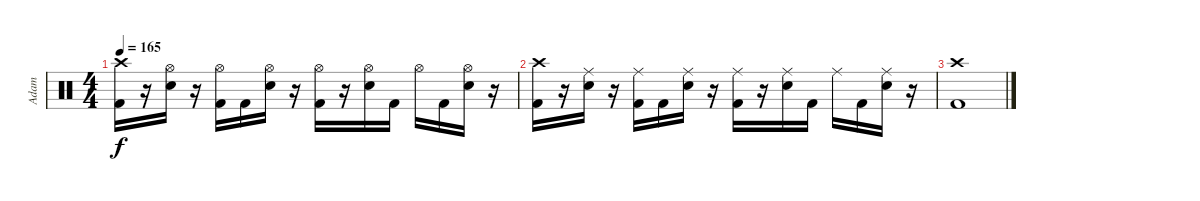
\track ("Adam" "Adam") {instrument percussion}
\staff {score}
\articulation defaults
\ts (4 4)
\tempo 165
\clef neutral
\ks c
("Crash high (hit)" "Kick (hit) 2").16{dy f} r.16 ("Hi-Hat (open)" "Electric Snare (hit)").16 r.16 ("Hi-Hat (open)" "Kick (hit) 2").16 "Kick (hit) 2".16 ("Hi-Hat (open)" "Electric Snare (hit)").16 r.16 ("Hi-Hat (open)" "Kick (hit) 2").16 r.16 ("Hi-Hat (open)" "Electric Snare (hit)").16 "Kick (hit) 2".16 "Hi-Hat (open)".16 "Kick (hit) 2".16 ("Hi-Hat (open)" "Electric Snare (hit)").16 r.16 |
("Crash high (hit)" "Kick (hit) 2").16 r.16 ("Ride (middle)" "Electric Snare (hit)").16 r.16 ("Ride (middle)" "Kick (hit) 2").16 "Kick (hit) 2".16 ("Ride (middle)" "Electric Snare (hit)").16 r.16 ("Ride (middle)" "Kick (hit) 2").16 r.16 ("Ride (middle)" "Electric Snare (hit)").16 "Kick (hit) 2".16 "Ride (middle)".16 "Kick (hit) 2".16 ("Ride (middle)" "Electric Snare (hit)").16 r.16 |
("Crash high (hit)" "Kick (hit) 2").1
